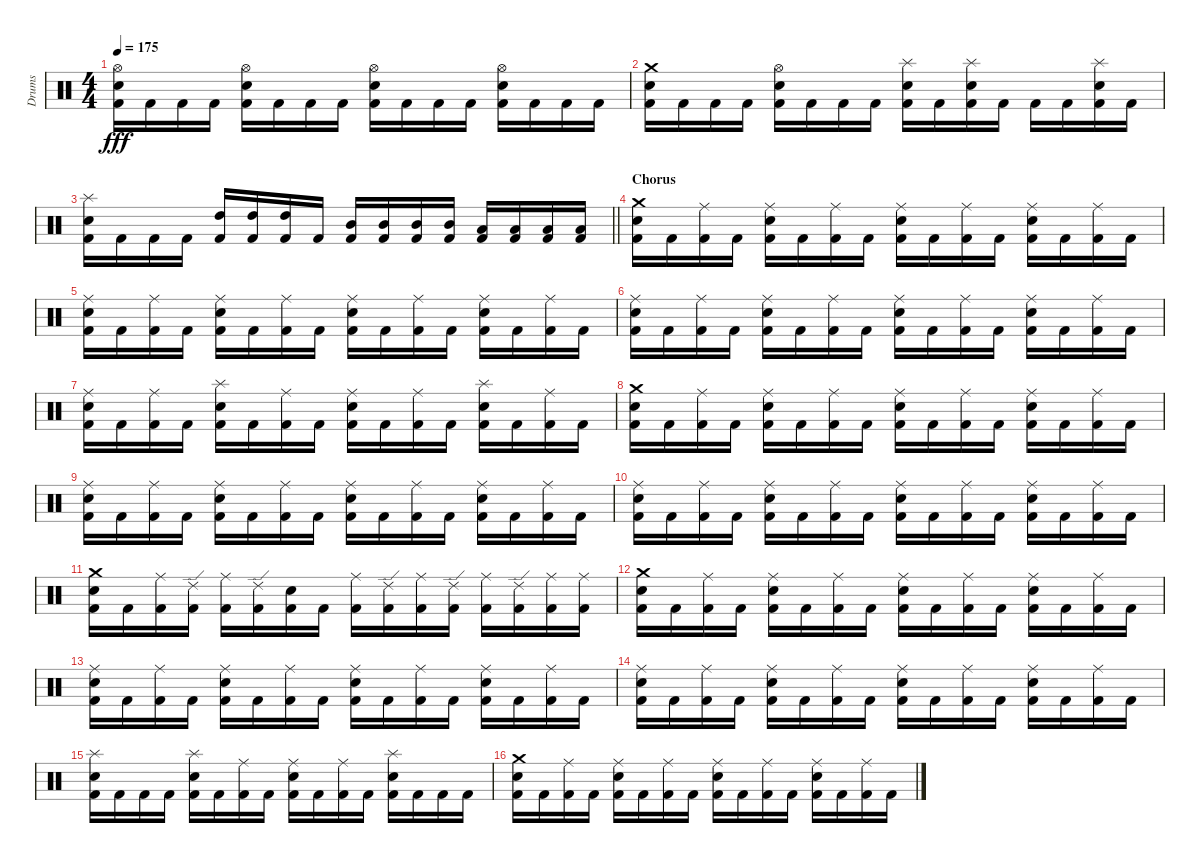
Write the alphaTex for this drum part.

\track ("Drums" "Drums") {instrument percussion}
\staff {score}
\articulation defaults
\ts (4 4)
\tempo 175
\clef neutral
\ks c
("Hi-Hat (open)" "Electric Snare (hit)" "Kick (hit) 2").16{dy fff} "Kick (hit) 2".16 "Kick (hit) 2".16 "Kick (hit) 2".16 ("Hi-Hat (open)" "Electric Snare (hit)" "Kick (hit) 2").16 "Kick (hit) 2".16 "Kick (hit) 2".16 "Kick (hit) 2".16 ("Hi-Hat (open)" "Electric Snare (hit)" "Kick (hit) 2").16 "Kick (hit) 2".16 "Kick (hit) 2".16 "Kick (hit) 2".16 ("Hi-Hat (open)" "Electric Snare (hit)" "Kick (hit) 2").16 "Kick (hit) 2".16 "Kick (hit) 2".16 "Kick (hit) 2".16 |
("Crash medium (hit)" "Electric Snare (hit)" "Kick (hit) 2").16 "Kick (hit) 2".16 "Kick (hit) 2".16 "Kick (hit) 2".16 ("Hi-Hat (open)" "Electric Snare (hit)" "Kick (hit) 2").16 "Kick (hit) 2".16 "Kick (hit) 2".16 "Kick (hit) 2".16 ("Splash (hit)" "Electric Snare (hit)" "Kick (hit) 2").16 "Kick (hit) 2".16 ("Splash (hit)" "Electric Snare (hit)" "Kick (hit) 2").16 "Kick (hit) 2".16 "Kick (hit) 2".16 "Kick (hit) 2".16 ("Splash (hit)" "Electric Snare (hit)" "Kick (hit) 2").16 "Kick (hit) 2".16 |
\barLineRight lightlight
("Splash (hit)" "Electric Snare (hit)" "Kick (hit) 2").16 "Kick (hit) 2".16 "Kick (hit) 2".16 "Kick (hit) 2".16 ("High Tom (hit)" "Kick (hit) 2").16 ("High Tom (hit)" "Kick (hit) 2").16 ("High Tom (hit)" "Kick (hit) 2").16 "Kick (hit) 2".16 ("Mid Tom (hit)" "Kick (hit) 2").16 ("Mid Tom (hit)" "Kick (hit) 2").16 ("Mid Tom (hit)" "Kick (hit) 2").16 ("Mid Tom (hit)" "Kick (hit) 2").16 ("Low Tom (hit)" "Kick (hit) 2").16 ("Low Tom (hit)" "Kick (hit) 2").16 ("Low Tom (hit)" "Kick (hit) 2").16 ("Low Tom (hit)" "Kick (hit) 2").16 |
\section ("" "Chorus")
("Crash medium (hit)" "Electric Snare (hit)" "Kick (hit) 2").16 "Kick (hit) 2".16 ("Ride (middle)" "Kick (hit) 2").16 "Kick (hit) 2".16 ("Ride (middle)" "Electric Snare (hit)" "Kick (hit) 2").16 "Kick (hit) 2".16 ("Ride (middle)" "Kick (hit) 2").16 "Kick (hit) 2".16 ("Ride (middle)" "Electric Snare (hit)" "Kick (hit) 2").16 "Kick (hit) 2".16 ("Ride (middle)" "Kick (hit) 2").16 "Kick (hit) 2".16 ("Ride (middle)" "Electric Snare (hit)" "Kick (hit) 2").16 "Kick (hit) 2".16 ("Ride (middle)" "Kick (hit) 2").16 "Kick (hit) 2".16 |
("Ride (middle)" "Electric Snare (hit)" "Kick (hit) 2").16 "Kick (hit) 2".16 ("Ride (middle)" "Kick (hit) 2").16 "Kick (hit) 2".16 ("Ride (middle)" "Electric Snare (hit)" "Kick (hit) 2").16 "Kick (hit) 2".16 ("Ride (middle)" "Kick (hit) 2").16 "Kick (hit) 2".16 ("Ride (middle)" "Electric Snare (hit)" "Kick (hit) 2").16 "Kick (hit) 2".16 ("Ride (middle)" "Kick (hit) 2").16 "Kick (hit) 2".16 ("Ride (middle)" "Electric Snare (hit)" "Kick (hit) 2").16 "Kick (hit) 2".16 ("Ride (middle)" "Kick (hit) 2").16 "Kick (hit) 2".16 |
("Ride (middle)" "Electric Snare (hit)" "Kick (hit) 2").16 "Kick (hit) 2".16 ("Ride (middle)" "Kick (hit) 2").16 "Kick (hit) 2".16 ("Ride (middle)" "Electric Snare (hit)" "Kick (hit) 2").16 "Kick (hit) 2".16 ("Ride (middle)" "Kick (hit) 2").16 "Kick (hit) 2".16 ("Ride (middle)" "Electric Snare (hit)" "Kick (hit) 2").16 "Kick (hit) 2".16 ("Ride (middle)" "Kick (hit) 2").16 "Kick (hit) 2".16 ("Ride (middle)" "Electric Snare (hit)" "Kick (hit) 2").16 "Kick (hit) 2".16 ("Ride (middle)" "Kick (hit) 2").16 "Kick (hit) 2".16 |
("Ride (middle)" "Electric Snare (hit)" "Kick (hit) 2").16 "Kick (hit) 2".16 ("Ride (middle)" "Kick (hit) 2").16 "Kick (hit) 2".16 ("Splash (hit)" "Electric Snare (hit)" "Kick (hit) 2").16 "Kick (hit) 2".16 ("Ride (middle)" "Kick (hit) 2").16 "Kick (hit) 2".16 ("Ride (middle)" "Electric Snare (hit)" "Kick (hit) 2").16 "Kick (hit) 2".16 ("Ride (middle)" "Kick (hit) 2").16 "Kick (hit) 2".16 ("Splash (hit)" "Electric Snare (hit)" "Kick (hit) 2").16 "Kick (hit) 2".16 ("Ride (middle)" "Kick (hit) 2").16 "Kick (hit) 2".16 |
("Crash medium (hit)" "Electric Snare (hit)" "Kick (hit) 2").16 "Kick (hit) 2".16 ("Ride (middle)" "Kick (hit) 2").16 "Kick (hit) 2".16 ("Ride (middle)" "Electric Snare (hit)" "Kick (hit) 2").16 "Kick (hit) 2".16 ("Ride (middle)" "Kick (hit) 2").16 "Kick (hit) 2".16 ("Ride (middle)" "Electric Snare (hit)" "Kick (hit) 2").16 "Kick (hit) 2".16 ("Ride (middle)" "Kick (hit) 2").16 "Kick (hit) 2".16 ("Ride (middle)" "Electric Snare (hit)" "Kick (hit) 2").16 "Kick (hit) 2".16 ("Ride (middle)" "Kick (hit) 2").16 "Kick (hit) 2".16 |
("Ride (middle)" "Electric Snare (hit)" "Kick (hit) 2").16 "Kick (hit) 2".16 ("Ride (middle)" "Kick (hit) 2").16 "Kick (hit) 2".16 ("Ride (middle)" "Electric Snare (hit)" "Kick (hit) 2").16 "Kick (hit) 2".16 ("Ride (middle)" "Kick (hit) 2").16 "Kick (hit) 2".16 ("Ride (middle)" "Electric Snare (hit)" "Kick (hit) 2").16 "Kick (hit) 2".16 ("Ride (middle)" "Kick (hit) 2").16 "Kick (hit) 2".16 ("Ride (middle)" "Electric Snare (hit)" "Kick (hit) 2").16 "Kick (hit) 2".16 ("Ride (middle)" "Kick (hit) 2").16 "Kick (hit) 2".16 |
("Ride (middle)" "Electric Snare (hit)" "Kick (hit) 2").16 "Kick (hit) 2".16 ("Ride (middle)" "Kick (hit) 2").16 "Kick (hit) 2".16 ("Ride (middle)" "Electric Snare (hit)" "Kick (hit) 2").16 "Kick (hit) 2".16 ("Ride (middle)" "Kick (hit) 2").16 "Kick (hit) 2".16 ("Ride (middle)" "Electric Snare (hit)" "Kick (hit) 2").16 "Kick (hit) 2".16 ("Ride (middle)" "Kick (hit) 2").16 "Kick (hit) 2".16 ("Ride (middle)" "Electric Snare (hit)" "Kick (hit) 2").16 "Kick (hit) 2".16 ("Ride (middle)" "Kick (hit) 2").16 "Kick (hit) 2".16 |
("Crash medium (hit)" "Electric Snare (hit)" "Kick (hit) 2").16 "Kick (hit) 2".16 ("Ride (middle)" "Kick (hit) 2").16 ("Ride (edge) 2" "Kick (hit) 2").16 ("Ride (middle)" "Kick (hit) 2").16 ("Ride (edge) 2" "Kick (hit) 2").16 ("Electric Snare (hit)" "Kick (hit) 2").16 "Kick (hit) 2".16 ("Ride (middle)" "Kick (hit) 2").16 ("Ride (edge) 2" "Kick (hit) 2").16 ("Ride (middle)" "Kick (hit) 2").16 ("Ride (edge) 2" "Kick (hit) 2").16 ("Ride (middle)" "Kick (hit) 2").16 ("Ride (edge) 2" "Kick (hit) 2").16 ("Ride (middle)" "Kick (hit) 2").16 ("Ride (middle)" "Kick (hit) 2").16 |
("Crash medium (hit)" "Electric Snare (hit)" "Kick (hit) 2").16 "Kick (hit) 2".16 ("Ride (middle)" "Kick (hit) 2").16 "Kick (hit) 2".16 ("Ride (middle)" "Electric Snare (hit)" "Kick (hit) 2").16 "Kick (hit) 2".16 ("Ride (middle)" "Kick (hit) 2").16 "Kick (hit) 2".16 ("Ride (middle)" "Electric Snare (hit)" "Kick (hit) 2").16 "Kick (hit) 2".16 ("Ride (middle)" "Kick (hit) 2").16 "Kick (hit) 2".16 ("Ride (middle)" "Electric Snare (hit)" "Kick (hit) 2").16 "Kick (hit) 2".16 ("Ride (middle)" "Kick (hit) 2").16 "Kick (hit) 2".16 |
("Ride (middle)" "Electric Snare (hit)" "Kick (hit) 2").16 "Kick (hit) 2".16 ("Ride (middle)" "Kick (hit) 2").16 "Kick (hit) 2".16 ("Ride (middle)" "Electric Snare (hit)" "Kick (hit) 2").16 "Kick (hit) 2".16 ("Ride (middle)" "Kick (hit) 2").16 "Kick (hit) 2".16 ("Ride (middle)" "Electric Snare (hit)" "Kick (hit) 2").16 "Kick (hit) 2".16 ("Ride (middle)" "Kick (hit) 2").16 "Kick (hit) 2".16 ("Ride (middle)" "Electric Snare (hit)" "Kick (hit) 2").16 "Kick (hit) 2".16 ("Ride (middle)" "Kick (hit) 2").16 "Kick (hit) 2".16 |
("Ride (middle)" "Electric Snare (hit)" "Kick (hit) 2").16 "Kick (hit) 2".16 ("Ride (middle)" "Kick (hit) 2").16 "Kick (hit) 2".16 ("Ride (middle)" "Electric Snare (hit)" "Kick (hit) 2").16 "Kick (hit) 2".16 ("Ride (middle)" "Kick (hit) 2").16 "Kick (hit) 2".16 ("Ride (middle)" "Electric Snare (hit)" "Kick (hit) 2").16 "Kick (hit) 2".16 ("Ride (middle)" "Kick (hit) 2").16 "Kick (hit) 2".16 ("Ride (middle)" "Electric Snare (hit)" "Kick (hit) 2").16 "Kick (hit) 2".16 ("Ride (middle)" "Kick (hit) 2").16 "Kick (hit) 2".16 |
("Splash (hit)" "Electric Snare (hit)" "Kick (hit) 2").16 "Kick (hit) 2".16 "Kick (hit) 2".16 "Kick (hit) 2".16 ("Splash (hit)" "Electric Snare (hit)" "Kick (hit) 2").16 "Kick (hit) 2".16 ("Ride (middle)" "Kick (hit) 2").16 "Kick (hit) 2".16 ("Ride (middle)" "Electric Snare (hit)" "Kick (hit) 2").16 "Kick (hit) 2".16 ("Ride (middle)" "Kick (hit) 2").16 "Kick (hit) 2".16 ("Splash (hit)" "Electric Snare (hit)" "Kick (hit) 2").16 "Kick (hit) 2".16 "Kick (hit) 2".16 "Kick (hit) 2".16 |
("Crash medium (hit)" "Electric Snare (hit)" "Kick (hit) 2").16 "Kick (hit) 2".16 ("Ride (middle)" "Kick (hit) 2").16 "Kick (hit) 2".16 ("Ride (middle)" "Electric Snare (hit)" "Kick (hit) 2").16 "Kick (hit) 2".16 ("Ride (middle)" "Kick (hit) 2").16 "Kick (hit) 2".16 ("Ride (middle)" "Electric Snare (hit)" "Kick (hit) 2").16 "Kick (hit) 2".16 ("Ride (middle)" "Kick (hit) 2").16 "Kick (hit) 2".16 ("Ride (middle)" "Electric Snare (hit)" "Kick (hit) 2").16 "Kick (hit) 2".16 ("Ride (middle)" "Kick (hit) 2").16 "Kick (hit) 2".16
